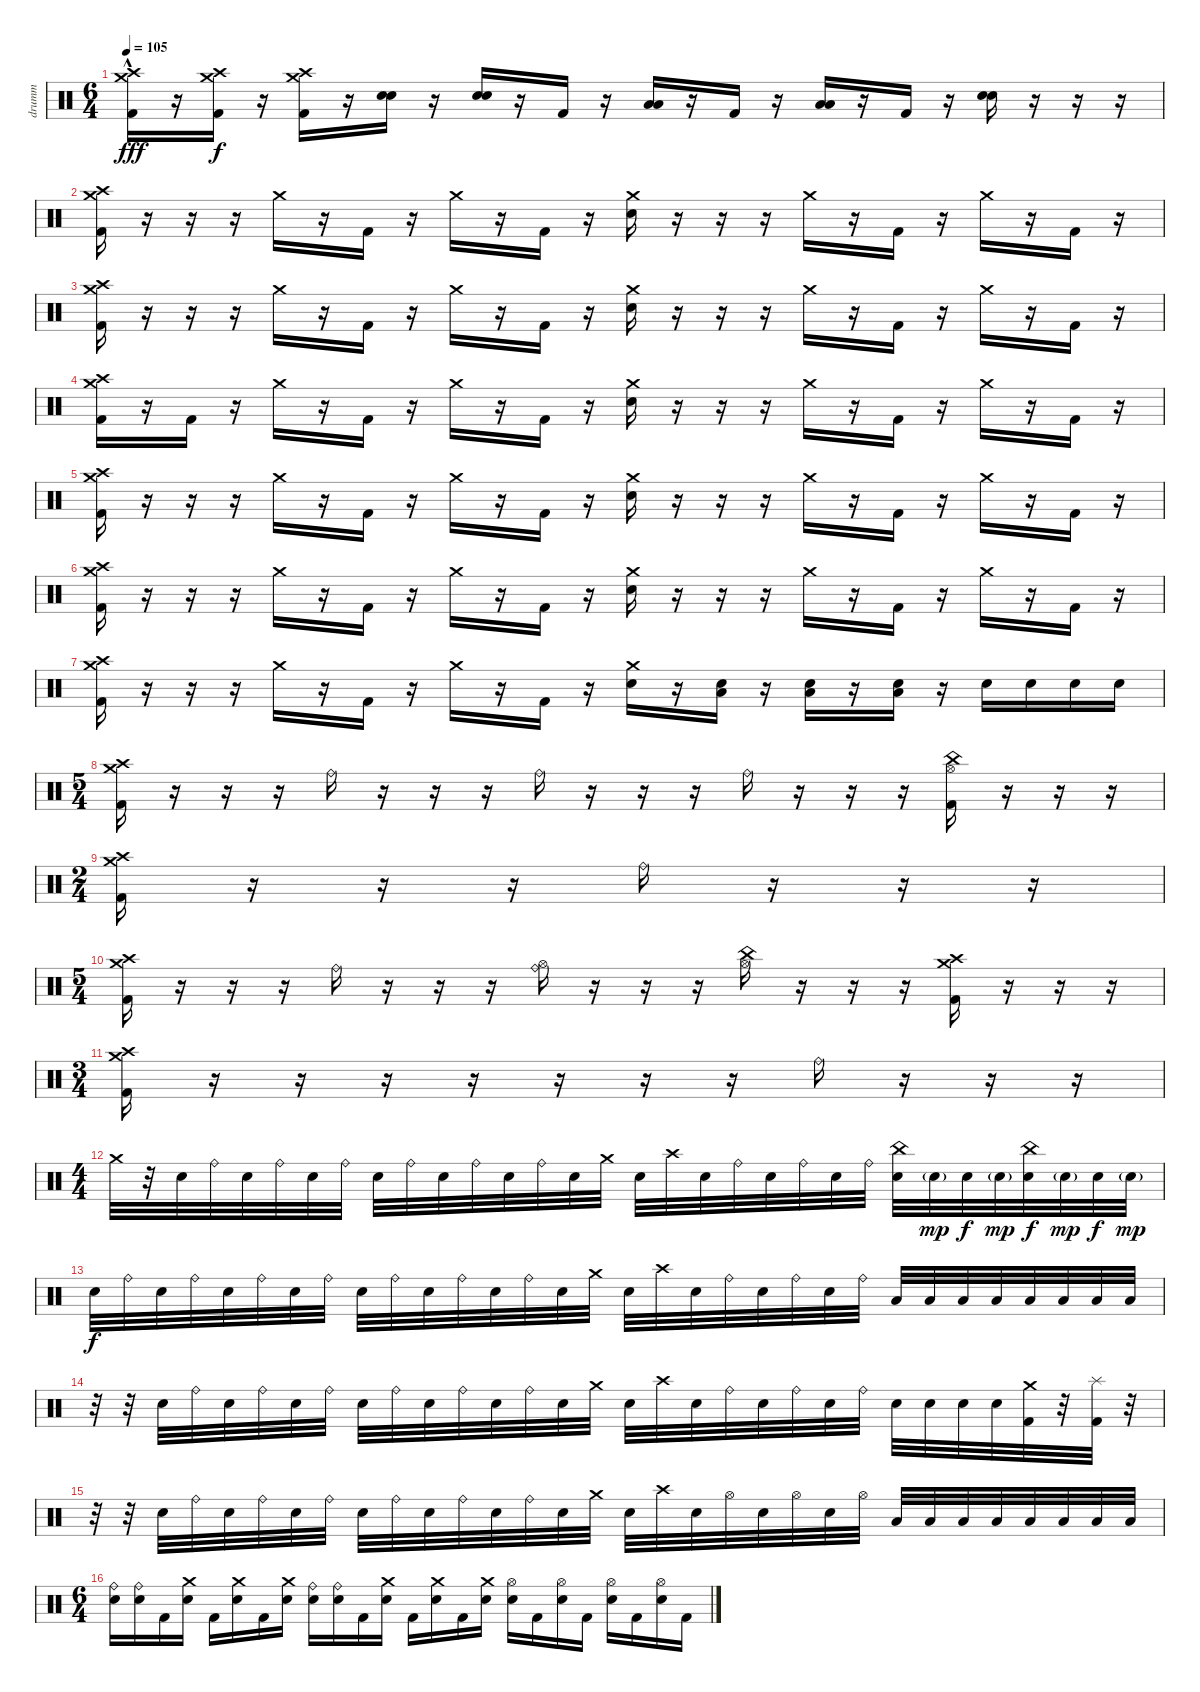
\track ("drumm" "drumm") {instrument percussion}
\staff
\articulation defaults
\ts (6 4)
\tempo 105
\clef neutral
\ks c
("Kick (hit) 2"{hac} "Crash medium (hit)" "Crash high (hit)").16{dy fff} r.16 ("Kick (hit) 2" "Crash medium (hit)" "Crash high (hit)").16{dy f} r.16 ("Kick (hit) 2" "Crash medium (hit)" "Crash high (hit)").16 r.16 ("Electric Snare (hit)" "Electric Snare (hit)").16 r.16 ("Electric Snare (hit)" "Electric Snare (hit)").16 r.16 "Kick (hit) 2".16 r.16 ("Low Tom (hit)" "Low Tom (hit)").16 r.16 "Kick (hit) 2".16 r.16 ("Low Tom (hit)" "Low Floor Tom (hit)").16 r.16 "Kick (hit) 2".16 r.16 ("Electric Snare (hit)" "Electric Snare (hit)").16 r.16 r.16 r.16 |
("Kick (hit) 2" "Crash medium (hit)" "Crash high (hit)").16 r.16 r.16 r.16 "Crash medium (hit)".16 r.16 "Kick (hit) 2".16 r.16 "Crash medium (hit)".16 r.16 "Kick (hit) 2".16 r.16 ("Crash medium (hit)" "Electric Snare (hit)").16 r.16 r.16 r.16 "Crash medium (hit)".16 r.16 "Kick (hit) 2".16 r.16 "Crash medium (hit)".16 r.16 "Kick (hit) 2".16 r.16 |
("Kick (hit) 2" "Crash medium (hit)" "Crash high (hit)").16 r.16 r.16 r.16 "Crash medium (hit)".16 r.16 "Kick (hit) 2".16 r.16 "Crash medium (hit)".16 r.16 "Kick (hit) 2".16 r.16 ("Crash medium (hit)" "Electric Snare (hit)").16 r.16 r.16 r.16 "Crash medium (hit)".16 r.16 "Kick (hit) 2".16 r.16 "Crash medium (hit)".16 r.16 "Kick (hit) 2".16 r.16 |
("Kick (hit) 2" "Crash medium (hit)" "Crash high (hit)").16 r.16 "Kick (hit) 2".16 r.16 "Crash medium (hit)".16 r.16 "Kick (hit) 2".16 r.16 "Crash medium (hit)".16 r.16 "Kick (hit) 2".16 r.16 ("Crash medium (hit)" "Electric Snare (hit)").16 r.16 r.16 r.16 "Crash medium (hit)".16 r.16 "Kick (hit) 2".16 r.16 "Crash medium (hit)".16 r.16 "Kick (hit) 2".16 r.16 |
("Kick (hit) 2" "Crash medium (hit)" "Crash high (hit)").16 r.16 r.16 r.16 "Crash medium (hit)".16 r.16 "Kick (hit) 2".16 r.16 "Crash medium (hit)".16 r.16 "Kick (hit) 2".16 r.16 ("Crash medium (hit)" "Electric Snare (hit)").16 r.16 r.16 r.16 "Crash medium (hit)".16 r.16 "Kick (hit) 2".16 r.16 "Crash medium (hit)".16 r.16 "Kick (hit) 2".16 r.16 |
("Kick (hit) 2" "Crash medium (hit)" "Crash high (hit)").16 r.16 r.16 r.16 "Crash medium (hit)".16 r.16 "Kick (hit) 2".16 r.16 "Crash medium (hit)".16 r.16 "Kick (hit) 2".16 r.16 ("Crash medium (hit)" "Electric Snare (hit)").16 r.16 r.16 r.16 "Crash medium (hit)".16 r.16 "Kick (hit) 2".16 r.16 "Crash medium (hit)".16 r.16 "Kick (hit) 2".16 r.16 |
("Kick (hit) 2" "Crash medium (hit)" "Crash high (hit)").16 r.16 r.16 r.16 "Crash medium (hit)".16 r.16 "Kick (hit) 2".16 r.16 "Crash medium (hit)".16 r.16 "Kick (hit) 2".16 r.16 ("Crash medium (hit)" "Electric Snare (hit)").16 r.16 ("Electric Snare (hit)" "Low Floor Tom (hit)").16 r.16 ("Electric Snare (hit)" "Low Floor Tom (hit)").16 r.16 ("Electric Snare (hit)" "Low Floor Tom (hit)").16 r.16 "Electric Snare (hit)".16 "Electric Snare (hit)".16 "Electric Snare (hit)".16 "Electric Snare (hit)".16 |
\ts (5 4)
("Crash medium (hit)" "Crash high (hit)" "Kick (hit) 2").16 r.16 r.16 r.16 "Ride (bell)".16 r.16 r.16 r.16 "Ride (bell)".16 r.16 r.16 r.16 "Ride (bell)".16 r.16 r.16 r.16 ("Kick (hit) 2" "Hi-Hat (open)" "China (hit)").16 r.16 r.16 r.16 |
\ts (2 4)
("Crash medium (hit)" "Crash high (hit)" "Kick (hit) 2").16 r.16 r.16 r.16 "Ride (bell)".16 r.16 r.16 r.16 |
\ts (5 4)
("Crash medium (hit)" "Crash high (hit)" "Kick (hit) 2").16 r.16 r.16 r.16 "Ride (bell)".16 r.16 r.16 r.16 ("Ride (bell)" "Hi-Hat (open)").16 r.16 r.16 r.16 ("Hi-Hat (open)" "China (hit)").16 r.16 r.16 r.16 ("Kick (hit) 2" "Crash medium (hit)" "Crash high (hit)").16 r.16 r.16 r.16 |
\ts (3 4)
("Kick (hit) 2" "Crash medium (hit)" "Crash high (hit)").16 r.16 r.16 r.16 r.16 r.16 r.16 r.16 "Ride (bell)".16 r.16 r.16 r.16 |
\ts (4 4)
"Crash medium (hit)".32 r.32 "Electric Snare (hit)".32 "Ride (bell)".32 "Electric Snare (hit)".32 "Ride (bell)".32 "Electric Snare (hit)".32 "Ride (bell)".32 "Electric Snare (hit)".32 "Ride (bell)".32 "Electric Snare (hit)".32 "Ride (bell)".32 "Electric Snare (hit)".32 "Ride (bell)".32 "Electric Snare (hit)".32 "Crash medium (hit)".32 "Electric Snare (hit)".32 "Crash high (hit)".32 "Electric Snare (hit)".32 "Ride (bell)".32 "Electric Snare (hit)".32 "Ride (bell)".32 "Electric Snare (hit)".32 "Ride (bell)".32 ("Electric Snare (hit)" "China (hit)").32 "Electric Snare (hit)"{g}.32{dy mp} "Electric Snare (hit)".32{dy f} "Electric Snare (hit)"{g}.32{dy mp} ("Electric Snare (hit)" "China (hit)").32{dy f} "Electric Snare (hit)"{g}.32{dy mp} "Electric Snare (hit)".32{dy f} "Electric Snare (hit)"{g}.32{dy mp} |
"Electric Snare (hit)".32{dy f} "Ride (bell)".32 "Electric Snare (hit)".32 "Ride (bell)".32 "Electric Snare (hit)".32 "Ride (bell)".32 "Electric Snare (hit)".32 "Ride (bell)".32 "Electric Snare (hit)".32 "Ride (bell)".32 "Electric Snare (hit)".32 "Ride (bell)".32 "Electric Snare (hit)".32 "Ride (bell)".32 "Electric Snare (hit)".32 "Crash medium (hit)".32 "Electric Snare (hit)".32 "Crash high (hit)".32 "Electric Snare (hit)".32 "Ride (bell)".32 "Electric Snare (hit)".32 "Ride (bell)".32 "Electric Snare (hit)".32 "Ride (bell)".32 "Low Tom (hit)".32 "Low Tom (hit)".32 "Low Tom (hit)".32 "Low Tom (hit)".32 "Low Floor Tom (hit)".32 "Low Floor Tom (hit)".32 "Low Floor Tom (hit)".32 "Low Floor Tom (hit)".32 |
r.32 r.32 "Electric Snare (hit)".32 "Ride (bell)".32 "Electric Snare (hit)".32 "Ride (bell)".32 "Electric Snare (hit)".32 "Ride (bell)".32 "Electric Snare (hit)".32 "Ride (bell)".32 "Electric Snare (hit)".32 "Ride (bell)".32 "Electric Snare (hit)".32 "Ride (bell)".32 "Electric Snare (hit)".32 "Crash medium (hit)".32 "Electric Snare (hit)".32 "Crash high (hit)".32 "Electric Snare (hit)".32 "Ride (bell)".32 "Electric Snare (hit)".32 "Ride (bell)".32 "Electric Snare (hit)".32 "Ride (bell)".32 "Electric Snare (hit)".32 "Electric Snare (hit)".32 "Electric Snare (hit)".32 "Electric Snare (hit)".32 ("Kick (hit) 2" "Crash medium (hit)").32 r.32 ("Kick (hit) 2" "Splash (hit)").32 r.32 |
r.32 r.32 "Electric Snare (hit)".32 "Ride (bell)".32 "Electric Snare (hit)".32 "Ride (bell)".32 "Electric Snare (hit)".32 "Ride (bell)".32 "Electric Snare (hit)".32 "Ride (bell)".32 "Electric Snare (hit)".32 "Ride (bell)".32 "Electric Snare (hit)".32 "Ride (bell)".32 "Electric Snare (hit)".32 "Crash medium (hit)".32 "Electric Snare (hit)".32 "Crash high (hit)".32 "Electric Snare (hit)".32 "Hi-Hat (open)".32 "Electric Snare (hit)".32 "Hi-Hat (open)".32 "Electric Snare (hit)".32 "Hi-Hat (open)".32 "Low Tom (hit)".32 "Low Tom (hit)".32 "Low Tom (hit)".32 "Low Tom (hit)".32 "Low Floor Tom (hit)".32 "Low Floor Tom (hit)".32 "Low Floor Tom (hit)".32 "Low Floor Tom (hit)".32 |
\ts (6 4)
("Electric Snare (hit)" "Ride (bell)").16 ("Electric Snare (hit)" "Ride (bell)").16 "Kick (hit) 2".16 ("Electric Snare (hit)" "Crash medium (hit)").16 "Kick (hit) 2".16 ("Electric Snare (hit)" "Crash medium (hit)").16 "Kick (hit) 2".16 ("Electric Snare (hit)" "Crash medium (hit)").16 ("Electric Snare (hit)" "Ride (bell)").16 ("Electric Snare (hit)" "Ride (bell)").16 "Kick (hit) 2".16 ("Electric Snare (hit)" "Crash medium (hit)").16 "Kick (hit) 2".16 ("Electric Snare (hit)" "Crash medium (hit)").16 "Kick (hit) 2".16 ("Electric Snare (hit)" "Crash medium (hit)").16 ("Electric Snare (hit)" "Hi-Hat (open)").16 "Kick (hit) 2".16 ("Electric Snare (hit)" "Hi-Hat (open)").16 "Kick (hit) 2".16 ("Electric Snare (hit)" "Hi-Hat (open)").16 "Kick (hit) 2".16 ("Electric Snare (hit)" "Hi-Hat (open)").16 "Kick (hit) 2".16
